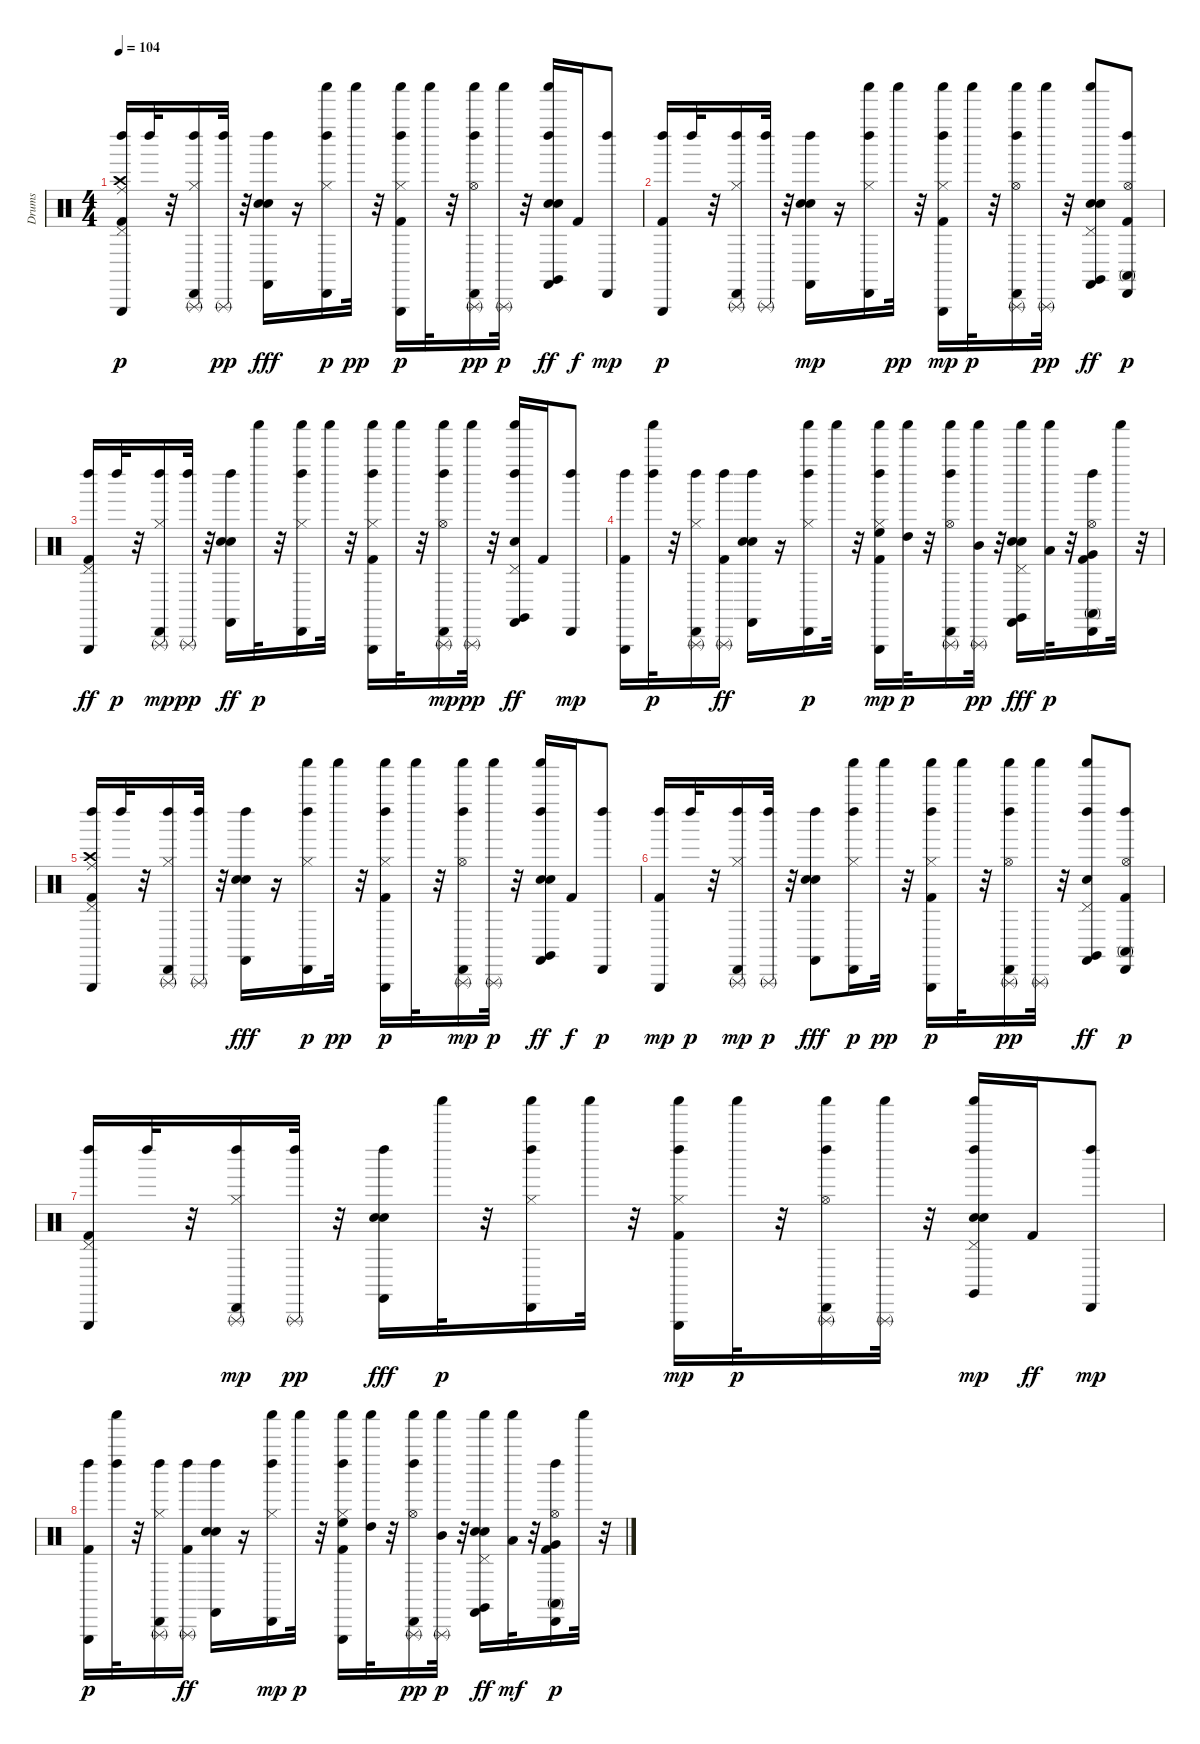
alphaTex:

\track ("Drums" "Drums") {instrument percussion}
\staff {score}
\articulation defaults
\ts (4 4)
\tempo 104
\clef neutral
\ks c
("Ride (middle)" "Pedal Hi-Hat (hit)" "Kick (hit) 2" "Triangle (hit)" "Crash high (hit)" "Left Maraca (hit)").16{dy p} "Left Maraca (hit)".32 r.32 ("Hi-Hat (closed)" "Cabasa (hit)" "Triangle (rnute)" "Left Maraca (hit)").16 ("Left Maraca (hit)" "Triangle (rnute)").32{dy pp} r.32 ("Left Maraca (hit)" "Castanets (hit)" "Electric Snare (hit)" "Hand Clap (hit)").16{dy fff} r.16 ("Cabasa (hit)" "Left Maraca (hit)" "Shaker (hit)" "Hi-Hat (closed)").16{dy p} "Shaker (hit)".32{dy pp} r.32 ("Triangle (hit)" "Left Maraca (hit)" "Hi-Hat (closed)" "Shaker (hit)" "Kick (hit) 2").16{dy p} "Shaker (hit)".32 r.32 ("Hi-Hat (open)" "Cabasa (hit)" "Left Maraca (hit)" "Shaker (hit)" "Triangle (rnute)").16{dy pp} ("Triangle (rnute)" "Shaker (hit)").32{dy p} r.32 ("Electric Snare (hit)" "Castanets (hit)" "Hand Clap (hit)" "Shaker (hit)" "Left Maraca (hit)" "Claves (hit)").16{dy ff} "Kick (hit) 2".16{dy f} ("Left Maraca (hit)" "Cabasa (hit)").8{dy mp} |
("Triangle (hit)" "Left Maraca (hit)" "Kick (hit) 2").16{dy p} "Left Maraca (hit)".32 r.32 ("Triangle (rnute)" "Cabasa (hit)" "Left Maraca (hit)" "Hi-Hat (closed)").16 ("Triangle (rnute)" "Left Maraca (hit)").32 r.32 ("Hand Clap (hit)" "Left Maraca (hit)" "Castanets (hit)" "Electric Snare (hit)").16{dy mp} r.16 ("Shaker (hit)" "Left Maraca (hit)" "Hi-Hat (closed)" "Cabasa (hit)").16 "Shaker (hit)".32{dy pp} r.32 ("Left Maraca (hit)" "Shaker (hit)" "Hi-Hat (closed)" "Triangle (hit)" "Kick (hit) 2").16{dy mp} "Shaker (hit)".32{dy p} r.32 ("Shaker (hit)" "Triangle (rnute)" "Left Maraca (hit)" "Cabasa (hit)" "Hi-Hat (open)").16 ("Shaker (hit)" "Triangle (rnute)").32{dy pp} r.32 ("Pedal Hi-Hat (hit)" "Castanets (hit)" "Shaker (hit)" "Hand Clap (hit)" "Electric Snare (hit)" "Claves (hit)").8{dy ff} ("Cabasa (hit)" "Hi-Hat (open)" "Conga high (mute)" "Kick (hit) 2" "Left Maraca (hit)").8{dy p} |
("Pedal Hi-Hat (hit)" "Triangle (hit)" "Left Maraca (hit)" "Kick (hit) 2").16{dy ff} "Left Maraca (hit)".32{dy p} r.32 ("Hi-Hat (closed)" "Left Maraca (hit)" "Triangle (rnute)" "Cabasa (hit)").16{dy mp} ("Triangle (rnute)" "Left Maraca (hit)").32{dy pp} r.32 ("Hand Clap (hit)" "Left Maraca (hit)" "Electric Snare (hit)" "Castanets (hit)").16{dy ff} "Shaker (hit)".32{dy p} r.32 ("Cabasa (hit)" "Shaker (hit)" "Left Maraca (hit)" "Hi-Hat (closed)").16 "Shaker (hit)".32 r.32 ("Hi-Hat (closed)" "Kick (hit) 2" "Shaker (hit)" "Triangle (hit)" "Left Maraca (hit)").16 "Shaker (hit)".32 r.32 ("Hi-Hat (open)" "Triangle (rnute)" "Shaker (hit)" "Left Maraca (hit)" "Cabasa (hit)").16{dy mp} ("Shaker (hit)" "Triangle (rnute)").32{dy pp} r.32 ("Shaker (hit)" "Left Maraca (hit)" "Hand Clap (hit)" "Claves (hit)" "Pedal Hi-Hat (hit)" "Castanets (hit)").16{dy ff} "Kick (hit) 2".16 ("Left Maraca (hit)" "Cabasa (hit)").8{dy mp} |
("Kick (hit) 2" "Left Maraca (hit)" "Triangle (hit)").16 ("Left Maraca (hit)" "Shaker (hit)").32{dy p} r.32 ("Hi-Hat (closed)" "Cabasa (hit)" "Triangle (rnute)" "Left Maraca (hit)").16 ("Triangle (rnute)" "Left Maraca (hit)" "Kick (hit) 2").16{dy ff} ("Hand Clap (hit)" "Electric Snare (hit)" "Left Maraca (hit)" "Castanets (hit)").16 r.16 ("Shaker (hit)" "Hi-Hat (closed)" "Cabasa (hit)" "Left Maraca (hit)").16{dy p} "Shaker (hit)".32 r.32 ("Kick (hit) 2" "Triangle (hit)" "Hi-Hat (closed)" "Left Maraca (hit)" "Shaker (hit)" "High Floor Tom (hit)").16{dy mp} ("High Tom (hit)" "Shaker (hit)").32{dy p} r.32 ("Cabasa (hit)" "Shaker (hit)" "Triangle (rnute)" "Hi-Hat (open)" "Left Maraca (hit)").16 ("Shaker (hit)" "Mid Tom (hit)" "Triangle (rnute)").32{dy pp} r.32 ("Claves (hit)" "Castanets (hit)" "Electric Snare (hit)" "Shaker (hit)" "Pedal Hi-Hat (hit)" "Hand Clap (hit)").16{dy fff} ("Low Tom (hit)" "Shaker (hit)").32{dy p} r.32 ("Left Maraca (hit)" "Cabasa (hit)" "Conga high (mute)" "Very Low Tom (hit)" "Kick (hit) 2" "Hi-Hat (open)").16 "Shaker (hit)".32 r.32 |
("Pedal Hi-Hat (hit)" "Left Maraca (hit)" "Kick (hit) 2" "Triangle (hit)" "Ride (middle)" "Crash high (hit)").16 "Left Maraca (hit)".32 r.32 ("Hi-Hat (closed)" "Triangle (rnute)" "Cabasa (hit)" "Left Maraca (hit)").16 ("Triangle (rnute)" "Left Maraca (hit)").32 r.32 ("Left Maraca (hit)" "Electric Snare (hit)" "Castanets (hit)" "Hand Clap (hit)").16{dy fff} r.16 ("Cabasa (hit)" "Shaker (hit)" "Left Maraca (hit)" "Hi-Hat (closed)").16{dy p} "Shaker (hit)".32{dy pp} r.32 ("Kick (hit) 2" "Left Maraca (hit)" "Shaker (hit)" "Triangle (hit)" "Hi-Hat (closed)").16{dy p} "Shaker (hit)".32 r.32 ("Left Maraca (hit)" "Shaker (hit)" "Hi-Hat (open)" "Triangle (rnute)" "Cabasa (hit)").16{dy mp} ("Triangle (rnute)" "Shaker (hit)").32{dy p} r.32 ("Shaker (hit)" "Left Maraca (hit)" "Electric Snare (hit)" "Hand Clap (hit)" "Claves (hit)" "Castanets (hit)").16{dy ff} "Kick (hit) 2".16{dy f} ("Cabasa (hit)" "Left Maraca (hit)").8{dy p} |
("Left Maraca (hit)" "Kick (hit) 2" "Triangle (hit)").16{dy mp} "Left Maraca (hit)".32{dy p} r.32 ("Hi-Hat (closed)" "Left Maraca (hit)" "Triangle (rnute)" "Cabasa (hit)").16{dy mp} ("Triangle (rnute)" "Left Maraca (hit)").32{dy p} r.32 ("Electric Snare (hit)" "Castanets (hit)" "Left Maraca (hit)" "Hand Clap (hit)").8{dy fff} ("Left Maraca (hit)" "Cabasa (hit)" "Hi-Hat (closed)" "Shaker (hit)").16{dy p} "Shaker (hit)".32{dy pp} r.32 ("Left Maraca (hit)" "Triangle (hit)" "Shaker (hit)" "Hi-Hat (closed)" "Kick (hit) 2").16{dy p} "Shaker (hit)".32 r.32 ("Cabasa (hit)" "Hi-Hat (open)" "Shaker (hit)" "Left Maraca (hit)" "Triangle (rnute)").16{dy pp} ("Shaker (hit)" "Triangle (rnute)").32 r.32 ("Castanets (hit)" "Left Maraca (hit)" "Pedal Hi-Hat (hit)" "Electric Snare (hit)" "Shaker (hit)" "Claves (hit)").8{dy ff} ("Conga high (mute)" "Cabasa (hit)" "Left Maraca (hit)" "Hi-Hat (open)" "Kick (hit) 2").8{dy p} |
("Triangle (hit)" "Left Maraca (hit)" "Kick (hit) 2" "Pedal Hi-Hat (hit)").16 "Left Maraca (hit)".32 r.32 ("Hi-Hat (closed)" "Left Maraca (hit)" "Triangle (rnute)" "Cabasa (hit)").16{dy mp} ("Left Maraca (hit)" "Triangle (rnute)").32{dy pp} r.32 ("Electric Snare (hit)" "Left Maraca (hit)" "Castanets (hit)" "Hand Clap (hit)").16{dy fff} "Shaker (hit)".32{dy p} r.32 ("Cabasa (hit)" "Shaker (hit)" "Left Maraca (hit)" "Hi-Hat (closed)").16 "Shaker (hit)".32 r.32 ("Left Maraca (hit)" "Shaker (hit)" "Hi-Hat (closed)" "Kick (hit) 2" "Triangle (hit)").16{dy mp} "Shaker (hit)".32{dy p} r.32 ("Cabasa (hit)" "Triangle (rnute)" "Left Maraca (hit)" "Shaker (hit)" "Hi-Hat (open)").16 ("Triangle (rnute)" "Shaker (hit)").32 r.32 ("Claves (hit)" "Shaker (hit)" "Electric Snare (hit)" "Left Maraca (hit)" "Hand Clap (hit)" "Pedal Hi-Hat (hit)").16{dy mp} "Kick (hit) 2".16{dy ff} ("Left Maraca (hit)" "Cabasa (hit)").8{dy mp} |
("Kick (hit) 2" "Triangle (hit)" "Left Maraca (hit)").16{dy p} ("Left Maraca (hit)" "Shaker (hit)").32 r.32 ("Left Maraca (hit)" "Triangle (rnute)" "Cabasa (hit)" "Hi-Hat (closed)").16 ("Left Maraca (hit)" "Triangle (rnute)" "Kick (hit) 2").16{dy ff} ("Hand Clap (hit)" "Electric Snare (hit)" "Left Maraca (hit)" "Castanets (hit)").16 r.16 ("Hi-Hat (closed)" "Shaker (hit)" "Left Maraca (hit)" "Cabasa (hit)").16{dy mp} "Shaker (hit)".32{dy p} r.32 ("Triangle (hit)" "Shaker (hit)" "Hi-Hat (closed)" "High Floor Tom (hit)" "Kick (hit) 2" "Left Maraca (hit)").16 ("Shaker (hit)" "High Tom (hit)").32 r.32 ("Cabasa (hit)" "Shaker (hit)" "Hi-Hat (open)" "Left Maraca (hit)" "Triangle (rnute)").16{dy pp} ("Triangle (rnute)" "Mid Tom (hit)" "Shaker (hit)").32{dy p} r.32 ("Hand Clap (hit)" "Pedal Hi-Hat (hit)" "Claves (hit)" "Electric Snare (hit)" "Shaker (hit)" "Castanets (hit)").16{dy ff} ("Shaker (hit)" "Low Tom (hit)").32{dy mf} r.32 ("Cabasa (hit)" "Very Low Tom (hit)" "Left Maraca (hit)" "Hi-Hat (open)" "Kick (hit) 2" "Conga high (mute)").16{dy p} "Shaker (hit)".32 r.32
